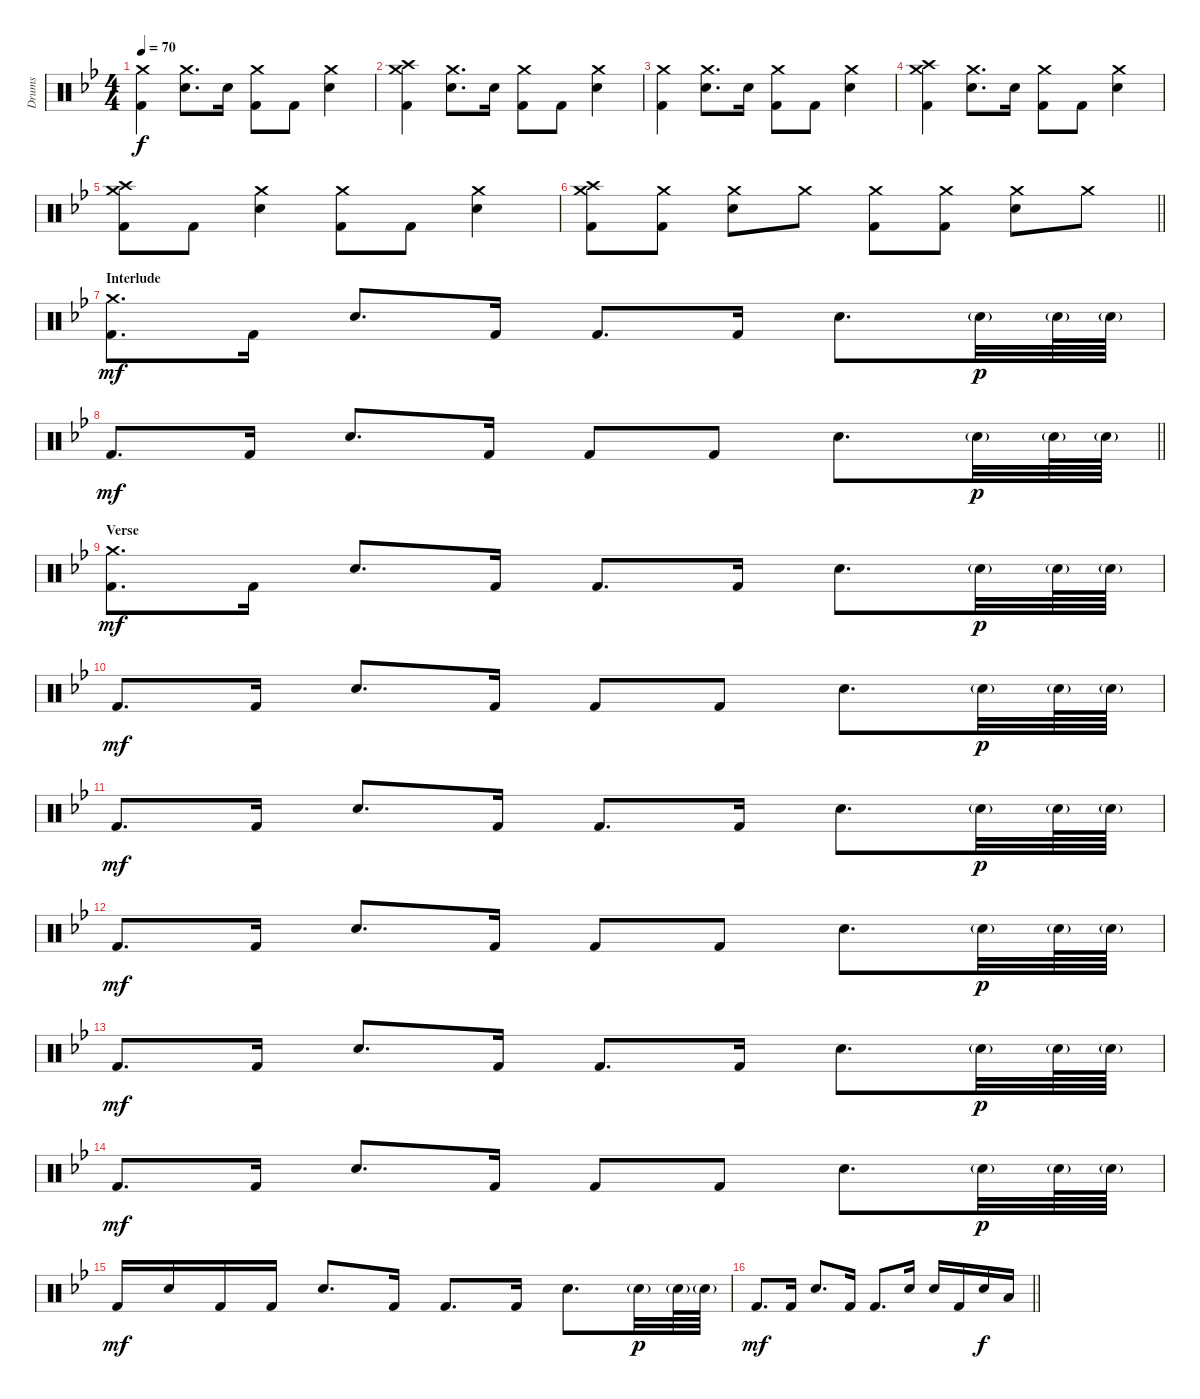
\track ("Drums" "Drums") {instrument percussion}
\staff {score}
\articulation defaults
\ts (4 4)
\tempo 70
\clef neutral
\ks gminor
("Crash medium (hit)" "Kick (hit) 2").4{dy f} ("Crash medium (hit)" "Snare (hit) 2").8{d} "Snare (hit) 2".16 ("Crash medium (hit)" "Kick (hit) 2").8 "Kick (hit) 2".8 ("Crash medium (hit)" "Snare (hit) 2").4 |
("Crash medium (hit)" "Crash high (hit)" "Kick (hit) 2").4 ("Crash medium (hit)" "Snare (hit) 2").8{d} "Snare (hit) 2".16 ("Crash medium (hit)" "Kick (hit) 2").8 "Kick (hit) 2".8 ("Crash medium (hit)" "Snare (hit) 2").4 |
("Crash medium (hit)" "Kick (hit) 2").4 ("Crash medium (hit)" "Snare (hit) 2").8{d} "Snare (hit) 2".16 ("Crash medium (hit)" "Kick (hit) 2").8 "Kick (hit) 2".8 ("Crash medium (hit)" "Snare (hit) 2").4 |
("Crash medium (hit)" "Crash high (hit)" "Kick (hit) 2").4 ("Crash medium (hit)" "Snare (hit) 2").8{d} "Snare (hit) 2".16 ("Crash medium (hit)" "Kick (hit) 2").8 "Kick (hit) 2".8 ("Crash medium (hit)" "Snare (hit) 2").4 |
("Crash medium (hit)" "Crash high (hit)" "Kick (hit) 2").8 "Kick (hit) 2".8 ("Crash medium (hit)" "Snare (hit) 2").4 ("Crash medium (hit)" "Kick (hit) 2").8 "Kick (hit) 2".8 ("Crash medium (hit)" "Snare (hit) 2").4 |
\barLineRight lightlight
("Crash medium (hit)" "Crash high (hit)" "Kick (hit) 2").8 ("Crash medium (hit)" "Kick (hit) 2").8 ("Crash medium (hit)" "Snare (hit) 2").8 "Crash medium (hit)".8 ("Crash medium (hit)" "Kick (hit) 2").8 ("Crash medium (hit)" "Kick (hit) 2").8 ("Crash medium (hit)" "Snare (hit) 2").8 "Crash medium (hit)".8 |
\section ("" "Interlude")
("Crash medium (hit)" "Kick (hit) 2").8{d dy mf} "Kick (hit) 2".16 "Snare (hit) 2".8{d} "Kick (hit) 2".16 "Kick (hit) 2".8{d} "Kick (hit) 2".16 "Snare (hit) 2".8{d} "Snare (hit) 2"{g}.32{dy p} "Snare (hit) 2"{g}.64 "Snare (hit) 2"{g}.64 |
\barLineRight lightlight "Kick (hit) 2".8{d dy mf} "Kick (hit) 2".16 "Snare (hit) 2".8{d} "Kick (hit) 2".16 "Kick (hit) 2".8 "Kick (hit) 2".8 "Snare (hit) 2".8{d} "Snare (hit) 2"{g}.32{dy p} "Snare (hit) 2"{g}.64 "Snare (hit) 2"{g}.64
|
\section ("" "Verse")
("Crash medium (hit)" "Kick (hit) 2").8{d dy mf} "Kick (hit) 2".16 "Snare (hit) 2".8{d} "Kick (hit) 2".16 "Kick (hit) 2".8{d} "Kick (hit) 2".16 "Snare (hit) 2".8{d} "Snare (hit) 2"{g}.32{dy p} "Snare (hit) 2"{g}.64 "Snare (hit) 2"{g}.64 |
"Kick (hit) 2".8{d dy mf} "Kick (hit) 2".16 "Snare (hit) 2".8{d} "Kick (hit) 2".16 "Kick (hit) 2".8 "Kick (hit) 2".8 "Snare (hit) 2".8{d} "Snare (hit) 2"{g}.32{dy p} "Snare (hit) 2"{g}.64 "Snare (hit) 2"{g}.64 |
"Kick (hit) 2".8{d dy mf} "Kick (hit) 2".16 "Snare (hit) 2".8{d} "Kick (hit) 2".16 "Kick (hit) 2".8{d} "Kick (hit) 2".16 "Snare (hit) 2".8{d} "Snare (hit) 2"{g}.32{dy p} "Snare (hit) 2"{g}.64 "Snare (hit) 2"{g}.64 |
"Kick (hit) 2".8{d dy mf} "Kick (hit) 2".16 "Snare (hit) 2".8{d} "Kick (hit) 2".16 "Kick (hit) 2".8 "Kick (hit) 2".8 "Snare (hit) 2".8{d} "Snare (hit) 2"{g}.32{dy p} "Snare (hit) 2"{g}.64 "Snare (hit) 2"{g}.64 |
"Kick (hit) 2".8{d dy mf} "Kick (hit) 2".16 "Snare (hit) 2".8{d} "Kick (hit) 2".16 "Kick (hit) 2".8{d} "Kick (hit) 2".16 "Snare (hit) 2".8{d} "Snare (hit) 2"{g}.32{dy p} "Snare (hit) 2"{g}.64 "Snare (hit) 2"{g}.64 |
"Kick (hit) 2".8{d dy mf} "Kick (hit) 2".16 "Snare (hit) 2".8{d} "Kick (hit) 2".16 "Kick (hit) 2".8 "Kick (hit) 2".8 "Snare (hit) 2".8{d} "Snare (hit) 2"{g}.32{dy p} "Snare (hit) 2"{g}.64 "Snare (hit) 2"{g}.64 |
"Kick (hit) 2".16{dy mf} "Snare (hit) 2".16 "Kick (hit) 2".16 "Kick (hit) 2".16 "Snare (hit) 2".8{d} "Kick (hit) 2".16 "Kick (hit) 2".8{d} "Kick (hit) 2".16 "Snare (hit) 2".8{d} "Snare (hit) 2"{g}.32{dy p} "Snare (hit) 2"{g}.64 "Snare (hit) 2"{g}.64 |
\barLineRight lightlight "Kick (hit) 2".8{d dy mf} "Kick (hit) 2".16 "Snare (hit) 2".8{d} "Kick (hit) 2".16 "Kick (hit) 2".8{d} "Snare (hit) 2".16 "Snare (hit) 2".16 "Kick (hit) 2".16 "Snare (hit) 2".16{dy f} "Low Floor Tom (hit)".16
